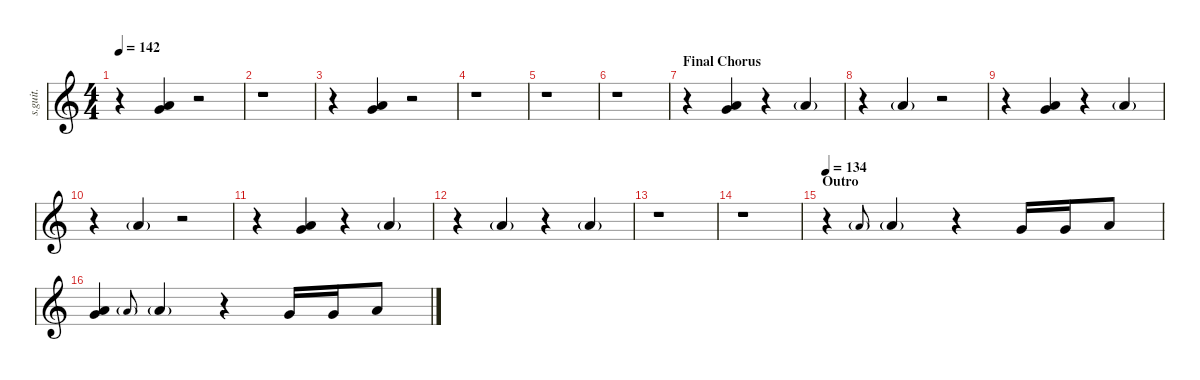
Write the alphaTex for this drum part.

\defaultSystemsLayout 4
\hideDynamics
\bracketExtendMode nobrackets
\track ("Chris Fehn" "s.guit.") {instrument percussion}
\staff {score}
\articulation defaults
\ts (4 4)
\tempo 142
\clef g2
\ks c
r.4{dy f} ("Very Low Tom (hit)" "Low Floor Tom (hit)").4 r.2 |
r.1 |
r.4 ("Very Low Tom (hit)" "Low Floor Tom (hit)").4 r.2 |
r.1 |
r.1 |
r.1 |
\section ("" "Final Chorus")
r.4 ("Very Low Tom (hit)" "Low Floor Tom (hit)").4 r.4 "Low Floor Tom (hit)"{g}.4 |
r.4 "Low Floor Tom (hit)"{g}.4 r.2 |
r.4 ("Very Low Tom (hit)" "Low Floor Tom (hit)").4 r.4 "Low Floor Tom (hit)"{g}.4 |
r.4 "Low Floor Tom (hit)"{g}.4 r.2 |
r.4 ("Very Low Tom (hit)" "Low Floor Tom (hit)").4 r.4 "Low Floor Tom (hit)"{g}.4 |
r.4 "Low Floor Tom (hit)"{g}.4 r.4 "Low Floor Tom (hit)"{g}.4 |
r.1 |
r.1 |
\section ("" "Outro")
\tempo 134
r.4 "Low Floor Tom (hit)"{g}.8{gr onbeat} "Low Floor Tom (hit)"{g}.4 r.4 "Very Low Tom (hit)".16 "Very Low Tom (hit)".16 "Low Floor Tom (hit)".8 |
("Very Low Tom (hit)" "Low Floor Tom (hit)").4 "Low Floor Tom (hit)"{g}.8{gr onbeat} "Low Floor Tom (hit)"{g}.4 r.4 "Very Low Tom (hit)".16 "Very Low Tom (hit)".16 "Low Floor Tom (hit)".8
